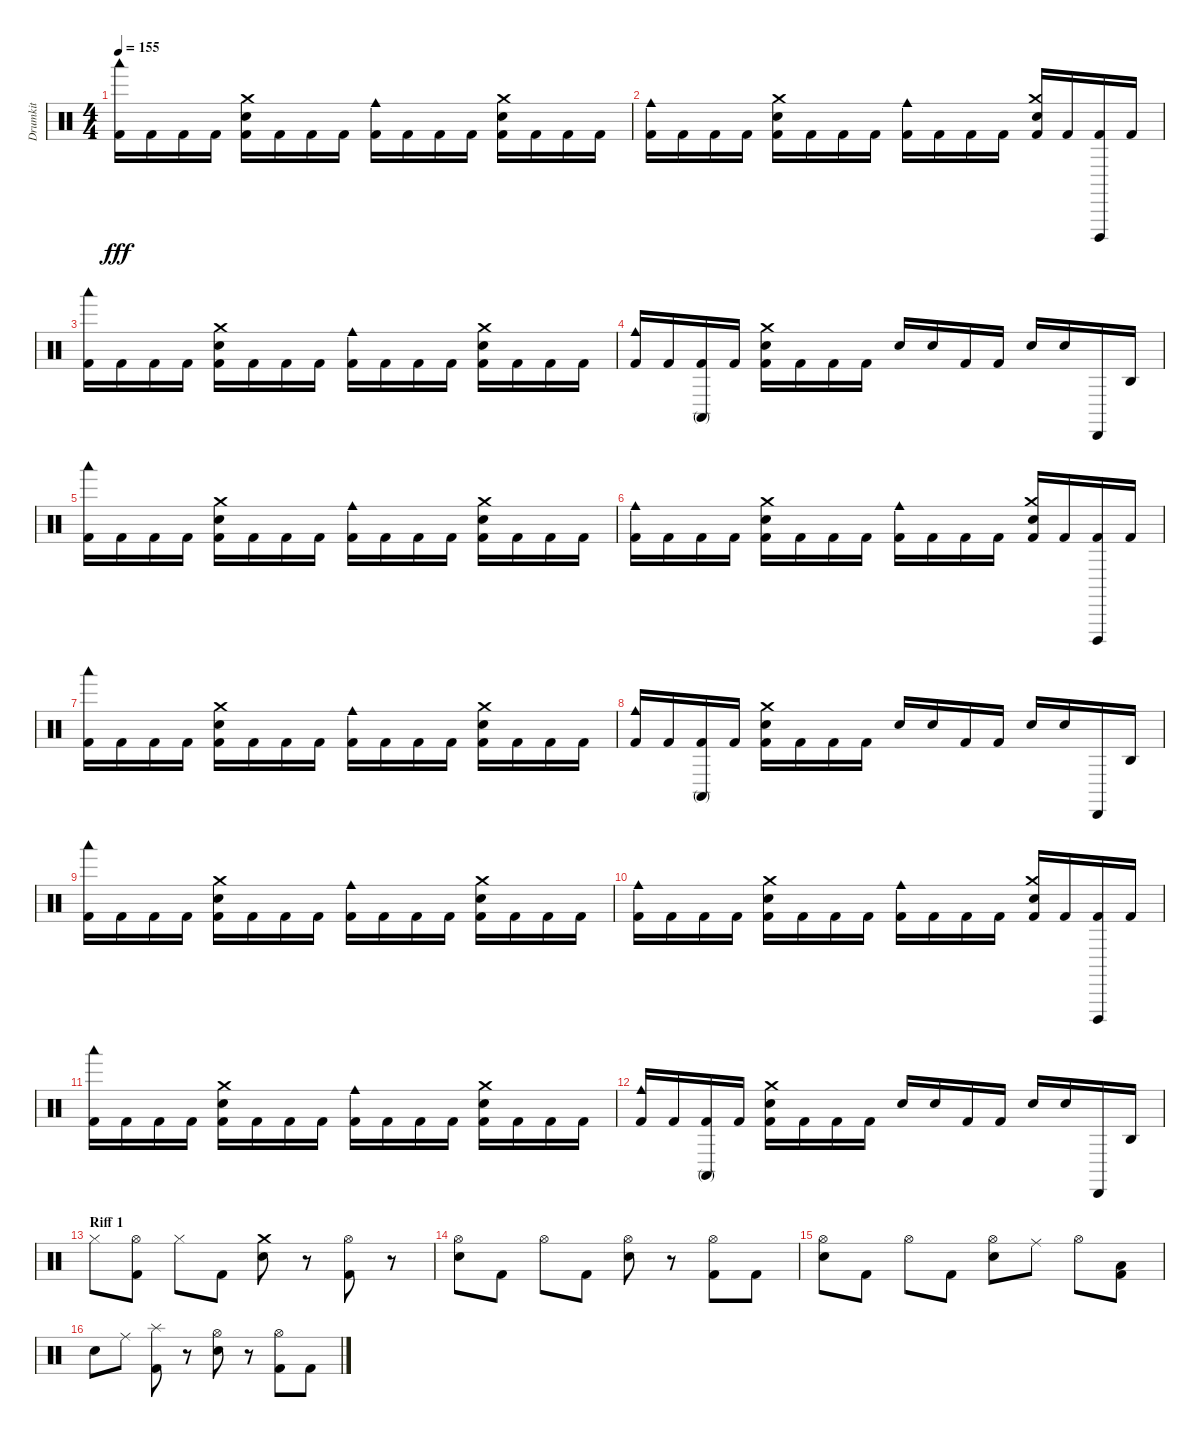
\track ("Drumkit" "Drumkit") {instrument percussion}
\staff {score}
\articulation defaults
\ts (4 4)
\tempo 155
\clef neutral
\ks c
("Kick (hit) 2" "Woodblock low (hit)").16{dy fff} "Kick (hit) 2".16 "Kick (hit) 2".16 "Kick (hit) 2".16 ("Kick (hit) 2" "Snare (hit) 2" "Crash medium (hit)").16 "Kick (hit) 2".16 "Kick (hit) 2".16 "Kick (hit) 2".16 ("Kick (hit) 2" "Cowbell medium (hit)").16 "Kick (hit) 2".16 "Kick (hit) 2".16 "Kick (hit) 2".16 ("Kick (hit) 2" "Snare (hit) 2" "Crash medium (hit)").16 "Kick (hit) 2".16 "Kick (hit) 2".16 "Kick (hit) 2".16 |
("Kick (hit) 2" "Cowbell medium (hit)").16 "Kick (hit) 2".16 "Kick (hit) 2".16 "Kick (hit) 2".16 ("Kick (hit) 2" "Snare (hit) 2" "Crash medium (hit)").16 "Kick (hit) 2".16 "Kick (hit) 2".16 "Kick (hit) 2".16 ("Kick (hit) 2" "Cowbell medium (hit)").16 "Kick (hit) 2".16 "Kick (hit) 2".16 "Kick (hit) 2".16 ("Kick (hit) 2" "Snare (hit) 2" "Crash medium (hit)").16 "Kick (hit) 2".16 ("Kick (hit) 2" "Cuica (open)").16 "Kick (hit) 2".16 |
("Kick (hit) 2" "Woodblock low (hit)").16 "Kick (hit) 2".16 "Kick (hit) 2".16 "Kick (hit) 2".16 ("Kick (hit) 2" "Snare (hit) 2" "Crash medium (hit)").16 "Kick (hit) 2".16 "Kick (hit) 2".16 "Kick (hit) 2".16 ("Kick (hit) 2" "Cowbell medium (hit)").16 "Kick (hit) 2".16 "Kick (hit) 2".16 "Kick (hit) 2".16 ("Kick (hit) 2" "Snare (hit) 2" "Crash medium (hit)").16 "Kick (hit) 2".16 "Kick (hit) 2".16 "Kick (hit) 2".16 |
("Kick (hit) 2" "Cowbell medium (hit)").16 "Kick (hit) 2".16 ("Kick (hit) 2" "Conga high (mute)").16 "Kick (hit) 2".16 ("Kick (hit) 2" "Snare (hit) 2" "Crash medium (hit)").16 "Kick (hit) 2".16 "Kick (hit) 2".16 "Kick (hit) 2".16 "Snare (hit) 2".16 "Hand Clap (hit)".16 "Kick (hit) 2".16 "Kick (hit) 2".16 "Snare (hit) 2".16 "Hand Clap (hit)".16 "Cabasa (hit)".16 "Agogo high (hit)".16 |
("Kick (hit) 2" "Woodblock low (hit)").16 "Kick (hit) 2".16 "Kick (hit) 2".16 "Kick (hit) 2".16 ("Kick (hit) 2" "Snare (hit) 2" "Crash medium (hit)").16 "Kick (hit) 2".16 "Kick (hit) 2".16 "Kick (hit) 2".16 ("Kick (hit) 2" "Cowbell medium (hit)").16 "Kick (hit) 2".16 "Kick (hit) 2".16 "Kick (hit) 2".16 ("Kick (hit) 2" "Snare (hit) 2" "Crash medium (hit)").16 "Kick (hit) 2".16 "Kick (hit) 2".16 "Kick (hit) 2".16 |
("Kick (hit) 2" "Cowbell medium (hit)").16 "Kick (hit) 2".16 "Kick (hit) 2".16 "Kick (hit) 2".16 ("Kick (hit) 2" "Snare (hit) 2" "Crash medium (hit)").16 "Kick (hit) 2".16 "Kick (hit) 2".16 "Kick (hit) 2".16 ("Kick (hit) 2" "Cowbell medium (hit)").16 "Kick (hit) 2".16 "Kick (hit) 2".16 "Kick (hit) 2".16 ("Kick (hit) 2" "Snare (hit) 2" "Crash medium (hit)").16 "Kick (hit) 2".16 ("Kick (hit) 2" "Cuica (open)").16 "Kick (hit) 2".16 |
("Kick (hit) 2" "Woodblock low (hit)").16 "Kick (hit) 2".16 "Kick (hit) 2".16 "Kick (hit) 2".16 ("Kick (hit) 2" "Snare (hit) 2" "Crash medium (hit)").16 "Kick (hit) 2".16 "Kick (hit) 2".16 "Kick (hit) 2".16 ("Kick (hit) 2" "Cowbell medium (hit)").16 "Kick (hit) 2".16 "Kick (hit) 2".16 "Kick (hit) 2".16 ("Kick (hit) 2" "Snare (hit) 2" "Crash medium (hit)").16 "Kick (hit) 2".16 "Kick (hit) 2".16 "Kick (hit) 2".16 |
("Kick (hit) 2" "Cowbell medium (hit)").16 "Kick (hit) 2".16 ("Kick (hit) 2" "Conga high (mute)").16 "Kick (hit) 2".16 ("Kick (hit) 2" "Snare (hit) 2" "Crash medium (hit)").16 "Kick (hit) 2".16 "Kick (hit) 2".16 "Kick (hit) 2".16 "Snare (hit) 2".16 "Hand Clap (hit)".16 "Kick (hit) 2".16 "Kick (hit) 2".16 "Snare (hit) 2".16 "Hand Clap (hit)".16 "Cabasa (hit)".16 "Agogo high (hit)".16 |
("Kick (hit) 2" "Woodblock low (hit)").16 "Kick (hit) 2".16 "Kick (hit) 2".16 "Kick (hit) 2".16 ("Kick (hit) 2" "Snare (hit) 2" "Crash medium (hit)").16 "Kick (hit) 2".16 "Kick (hit) 2".16 "Kick (hit) 2".16 ("Kick (hit) 2" "Cowbell medium (hit)").16 "Kick (hit) 2".16 "Kick (hit) 2".16 "Kick (hit) 2".16 ("Kick (hit) 2" "Snare (hit) 2" "Crash medium (hit)").16 "Kick (hit) 2".16 "Kick (hit) 2".16 "Kick (hit) 2".16 |
("Kick (hit) 2" "Cowbell medium (hit)").16 "Kick (hit) 2".16 "Kick (hit) 2".16 "Kick (hit) 2".16 ("Kick (hit) 2" "Snare (hit) 2" "Crash medium (hit)").16 "Kick (hit) 2".16 "Kick (hit) 2".16 "Kick (hit) 2".16 ("Kick (hit) 2" "Cowbell medium (hit)").16 "Kick (hit) 2".16 "Kick (hit) 2".16 "Kick (hit) 2".16 ("Kick (hit) 2" "Snare (hit) 2" "Crash medium (hit)").16 "Kick (hit) 2".16 ("Kick (hit) 2" "Cuica (open)").16 "Kick (hit) 2".16 |
("Kick (hit) 2" "Woodblock low (hit)").16 "Kick (hit) 2".16 "Kick (hit) 2".16 "Kick (hit) 2".16 ("Kick (hit) 2" "Snare (hit) 2" "Crash medium (hit)").16 "Kick (hit) 2".16 "Kick (hit) 2".16 "Kick (hit) 2".16 ("Kick (hit) 2" "Cowbell medium (hit)").16 "Kick (hit) 2".16 "Kick (hit) 2".16 "Kick (hit) 2".16 ("Kick (hit) 2" "Snare (hit) 2" "Crash medium (hit)").16 "Kick (hit) 2".16 "Kick (hit) 2".16 "Kick (hit) 2".16 |
("Kick (hit) 2" "Cowbell medium (hit)").16 "Kick (hit) 2".16 ("Kick (hit) 2" "Conga high (mute)").16 "Kick (hit) 2".16 ("Kick (hit) 2" "Snare (hit) 2" "Crash medium (hit)").16 "Kick (hit) 2".16 "Kick (hit) 2".16 "Kick (hit) 2".16 "Snare (hit) 2".16 "Hand Clap (hit)".16 "Kick (hit) 2".16 "Kick (hit) 2".16 "Snare (hit) 2".16 "Hand Clap (hit)".16 "Cabasa (hit)".16 "Agogo high (hit)".16 |
\section ("" "Riff 1")
"Hi-Hat (closed)".8 ("Kick (hit) 2" "Hi-Hat (open)").8 "Hi-Hat (closed)".8 "Kick (hit) 2".8 ("Snare (hit) 2" "Crash medium (hit)").8 r.8 ("Kick (hit) 2" "Hi-Hat (open)").8 r.8 |
("Snare (hit) 2" "Hi-Hat (open)").8 "Kick (hit) 2".8 "Hi-Hat (open)".8 "Kick (hit) 2".8 ("Snare (hit) 2" "Hi-Hat (open)").8 r.8 ("Kick (hit) 2" "Hi-Hat (open)").8 "Kick (hit) 2".8 |
("Snare (hit) 2" "Hi-Hat (open)").8 "Kick (hit) 2".8 "Hi-Hat (open)".8 "Kick (hit) 2".8 ("Snare (hit) 2" "Hi-Hat (open)").8 "Ride (middle)".8 "Hi-Hat (open)".8 ("Kick (hit) 2" "Low Tom (hit)").8 |
"Snare (hit) 2".8 "Ride (middle)".8 ("Kick (hit) 2" "Splash (hit)").8 r.8 ("Snare (hit) 2" "Hi-Hat (open)").8 r.8 ("Kick (hit) 2" "Hi-Hat (open)").8 "Kick (hit) 2".8
